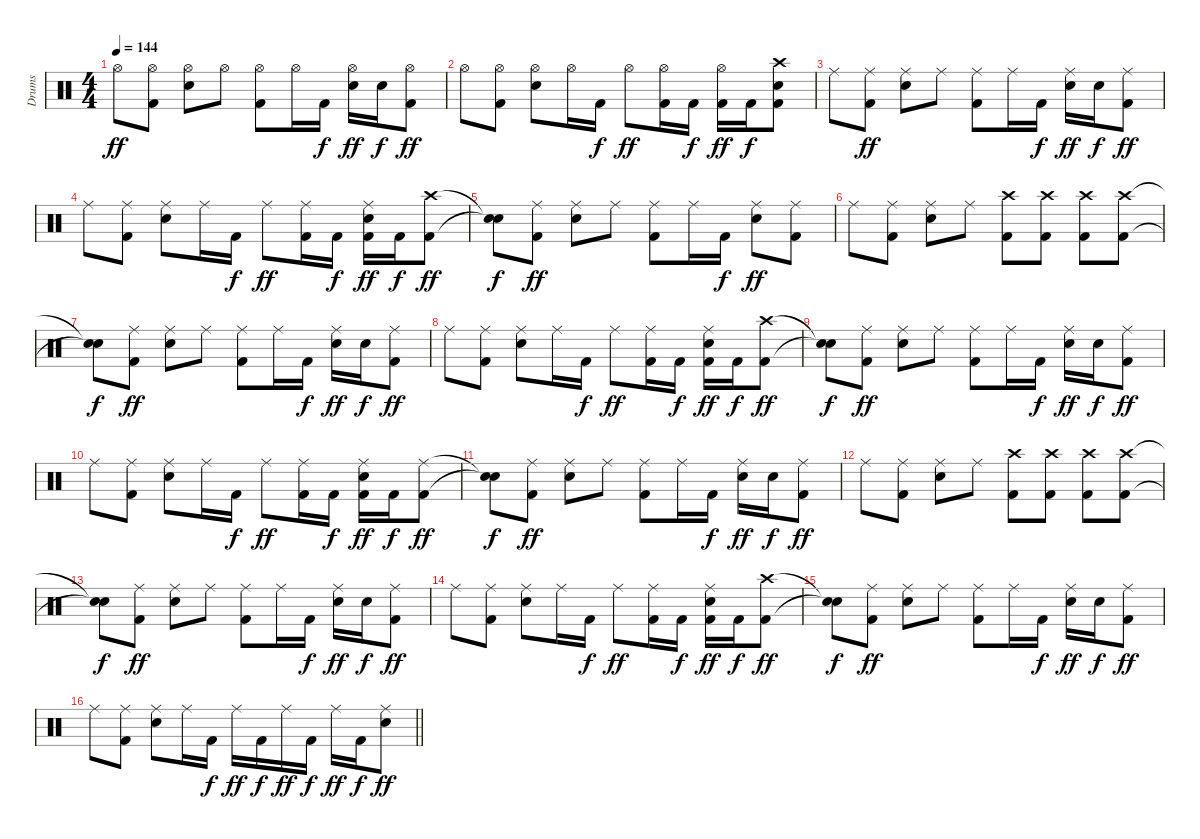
\track ("Drums" "Drums") {instrument percussion}
\staff {score}
\articulation defaults
\ts (4 4)
\tempo 144
\clef neutral
\ks c "Hi-Hat (open)".8{dy ff}
("Hi-Hat (open)" "Kick (hit) 2").8 ("Hi-Hat (open)" "Snare (hit) 2").8 "Hi-Hat (open)".8 ("Hi-Hat (open)" "Kick (hit) 2").8 "Hi-Hat (open)".16 "Kick (hit) 2".16{dy f} ("Hi-Hat (open)" "Snare (hit) 2").16{dy ff} "Snare (hit) 2".16{dy f} ("Hi-Hat (open)" "Kick (hit) 2").8{dy ff} |
"Hi-Hat (open)".8 ("Hi-Hat (open)" "Kick (hit) 2").8 ("Hi-Hat (open)" "Snare (hit) 2").8 "Hi-Hat (open)".16 "Kick (hit) 2".16{dy f} "Hi-Hat (open)".8{dy ff} ("Hi-Hat (open)" "Kick (hit) 2").16 "Kick (hit) 2".16{dy f} ("Hi-Hat (open)" "Kick (hit) 2").16{dy ff} "Kick (hit) 2".16{dy f} ("Crash high (hit)" "Snare (hit) 2" "Kick (hit) 2").8 |
"Ride (middle)".8 ("Ride (middle)" "Kick (hit) 2").8{dy ff} ("Ride (middle)" "Snare (hit) 2").8 "Ride (middle)".8 ("Ride (middle)" "Kick (hit) 2").8 "Ride (middle)".16 "Kick (hit) 2".16{dy f} ("Ride (middle)" "Snare (hit) 2").16{dy ff} "Snare (hit) 2".16{dy f} ("Ride (middle)" "Kick (hit) 2").8{dy ff} |
"Ride (middle)".8 ("Ride (middle)" "Kick (hit) 2").8 ("Ride (middle)" "Snare (hit) 2").8 "Ride (middle)".16 "Kick (hit) 2".16{dy f} "Ride (middle)".8{dy ff} ("Ride (middle)" "Kick (hit) 2").16 "Kick (hit) 2".16{dy f} ("Ride (middle)" "Snare (hit) 2" "Kick (hit) 2").16{dy ff} "Kick (hit) 2".16{dy f} ("Crash high (hit)" "Kick (hit) 2").8{dy ff} |
("Snare (hit)"{t} "Snare (hit)"{t}).8{dy f} ("Ride (middle)" "Kick (hit) 2").8{dy ff} ("Ride (middle)" "Snare (hit) 2").8 "Ride (middle)".8 ("Ride (middle)" "Kick (hit) 2").8 "Ride (middle)".16 "Kick (hit) 2".16{dy f} ("Ride (middle)" "Snare (hit) 2").8{dy ff} ("Ride (middle)" "Kick (hit) 2").8 |
"Ride (middle)".8 ("Ride (middle)" "Kick (hit) 2").8 ("Ride (middle)" "Snare (hit) 2").8 "Ride (middle)".8 ("Crash high (hit)" "Kick (hit) 2").8 ("Crash high (hit)" "Kick (hit) 2").8 ("Crash high (hit)" "Kick (hit) 2").8 ("Crash high (hit)" "Kick (hit) 2").8 |
("Snare (hit)"{t} "Snare (hit)"{t}).8{dy f} ("Ride (middle)" "Kick (hit) 2").8{dy ff} ("Ride (middle)" "Snare (hit) 2").8 "Ride (middle)".8 ("Ride (middle)" "Kick (hit) 2").8 "Ride (middle)".16 "Kick (hit) 2".16{dy f} ("Ride (middle)" "Snare (hit) 2").16{dy ff} "Snare (hit) 2".16{dy f} ("Ride (middle)" "Kick (hit) 2").8{dy ff} |
"Ride (middle)".8 ("Ride (middle)" "Kick (hit) 2").8 ("Ride (middle)" "Snare (hit) 2").8 "Ride (middle)".16 "Kick (hit) 2".16{dy f} "Ride (middle)".8{dy ff} ("Ride (middle)" "Kick (hit) 2").16 "Kick (hit) 2".16{dy f} ("Ride (middle)" "Snare (hit) 2" "Kick (hit) 2").16{dy ff} "Kick (hit) 2".16{dy f} ("Crash high (hit)" "Kick (hit) 2").8{dy ff} |
("Snare (hit)"{t} "Snare (hit)"{t}).8{dy f} ("Ride (middle)" "Kick (hit) 2").8{dy ff} ("Ride (middle)" "Snare (hit) 2").8 "Ride (middle)".8 ("Ride (middle)" "Kick (hit) 2").8 "Ride (middle)".16 "Kick (hit) 2".16{dy f} ("Ride (middle)" "Snare (hit) 2").16{dy ff} "Snare (hit) 2".16{dy f} ("Ride (middle)" "Kick (hit) 2").8{dy ff} |
"Ride (middle)".8 ("Ride (middle)" "Kick (hit) 2").8 ("Ride (middle)" "Snare (hit) 2").8 "Ride (middle)".16 "Kick (hit) 2".16{dy f} "Ride (middle)".8{dy ff} ("Ride (middle)" "Kick (hit) 2").16 "Kick (hit) 2".16{dy f} ("Ride (middle)" "Snare (hit) 2" "Kick (hit) 2").16{dy ff} "Kick (hit) 2".16{dy f} ("Ride (middle)" "Kick (hit) 2").8{dy ff} |
("Snare (hit)"{t} "Snare (hit)"{t}).8{dy f} ("Ride (middle)" "Kick (hit) 2").8{dy ff} ("Ride (middle)" "Snare (hit) 2").8 "Ride (middle)".8 ("Ride (middle)" "Kick (hit) 2").8 "Ride (middle)".16 "Kick (hit) 2".16{dy f} ("Ride (middle)" "Snare (hit) 2").16{dy ff} "Snare (hit) 2".16{dy f} ("Ride (middle)" "Kick (hit) 2").8{dy ff} |
"Ride (middle)".8 ("Ride (middle)" "Kick (hit) 2").8 ("Ride (middle)" "Snare (hit) 2").8 "Ride (middle)".8 ("Crash high (hit)" "Kick (hit) 2").8 ("Crash high (hit)" "Kick (hit) 2").8 ("Crash high (hit)" "Kick (hit) 2").8 ("Crash high (hit)" "Kick (hit) 2").8 |
("Snare (hit)"{t} "Snare (hit)"{t}).8{dy f} ("Ride (middle)" "Kick (hit) 2").8{dy ff} ("Ride (middle)" "Snare (hit) 2").8 "Ride (middle)".8 ("Ride (middle)" "Kick (hit) 2").8 "Ride (middle)".16 "Kick (hit) 2".16{dy f} ("Ride (middle)" "Snare (hit) 2").16{dy ff} "Snare (hit) 2".16{dy f} ("Ride (middle)" "Kick (hit) 2").8{dy ff} |
"Ride (middle)".8 ("Ride (middle)" "Kick (hit) 2").8 ("Ride (middle)" "Snare (hit) 2").8 "Ride (middle)".16 "Kick (hit) 2".16{dy f} "Ride (middle)".8{dy ff} ("Ride (middle)" "Kick (hit) 2").16 "Kick (hit) 2".16{dy f} ("Ride (middle)" "Snare (hit) 2" "Kick (hit) 2").16{dy ff} "Kick (hit) 2".16{dy f} ("Crash high (hit)" "Kick (hit) 2").8{dy ff} |
("Snare (hit)"{t} "Snare (hit)"{t}).8{dy f} ("Ride (middle)" "Kick (hit) 2").8{dy ff} ("Ride (middle)" "Snare (hit) 2").8 "Ride (middle)".8 ("Ride (middle)" "Kick (hit) 2").8 "Ride (middle)".16 "Kick (hit) 2".16{dy f} ("Ride (middle)" "Snare (hit) 2").16{dy ff} "Snare (hit) 2".16{dy f} ("Ride (middle)" "Kick (hit) 2").8{dy ff} |
\barLineRight lightlight "Ride (middle)".8
("Ride (middle)" "Kick (hit) 2").8 ("Ride (middle)" "Snare (hit) 2").8 "Ride (middle)".16 "Kick (hit) 2".16{dy f} "Ride (middle)".16{dy ff} "Kick (hit) 2".16{dy f} "Ride (middle)".16{dy ff} "Kick (hit) 2".16{dy f} "Ride (middle)".16{dy ff} "Kick (hit) 2".16{dy f} ("Ride (middle)" "Snare (hit) 2").8{dy ff}
